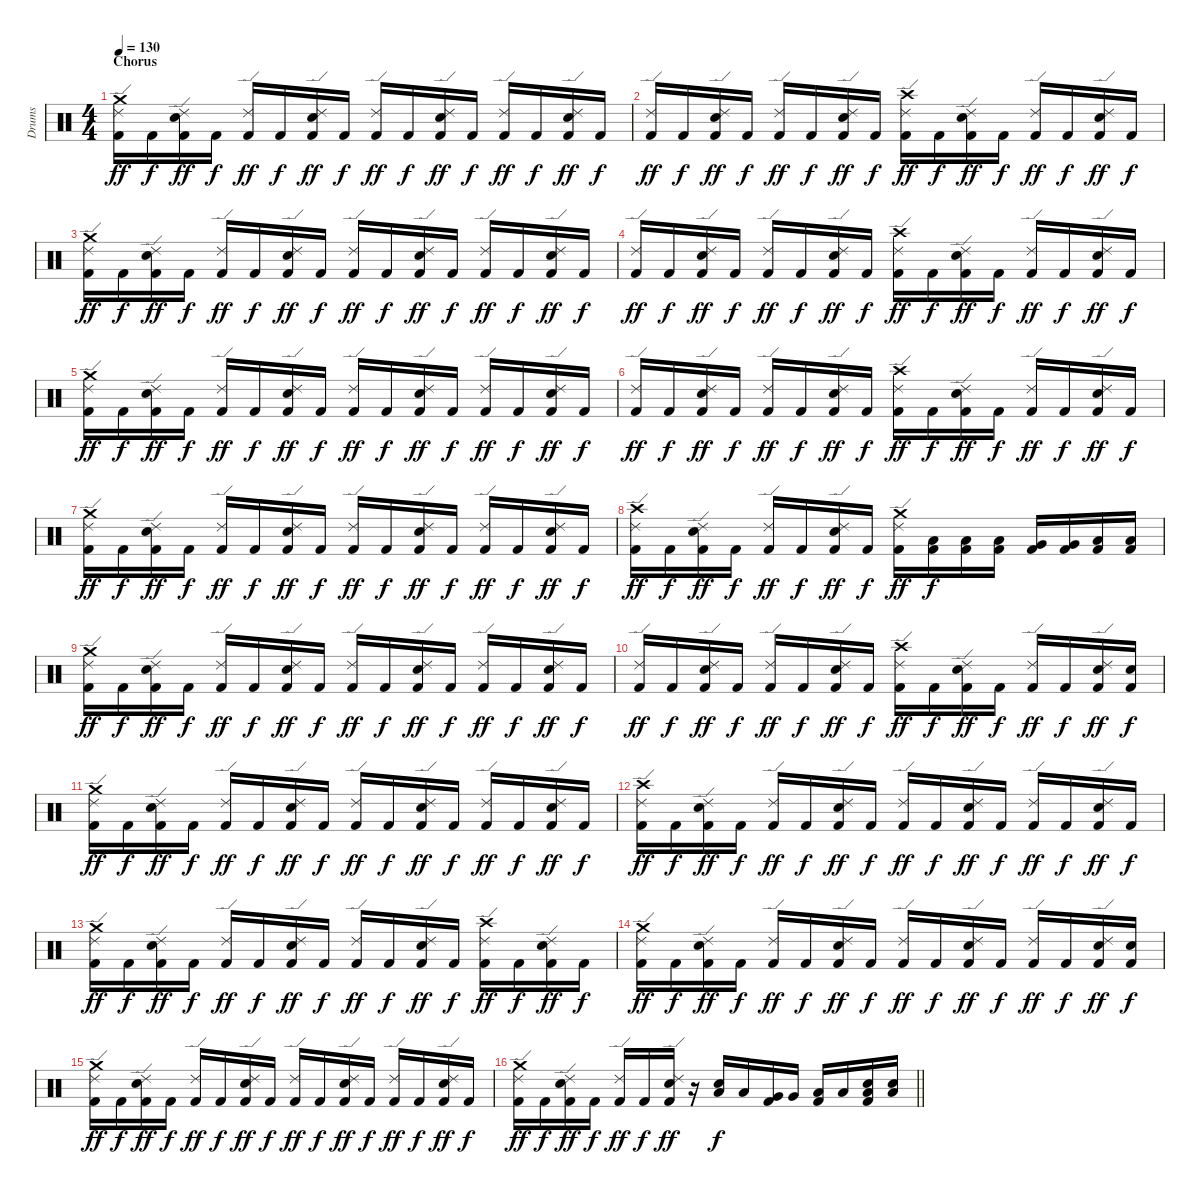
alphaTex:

\track ("Drums" "Drums") {instrument percussion}
\staff {score}
\articulation defaults
\ts (4 4)
\section ("" "Chorus")
\tempo 130
\clef neutral
\ks c
("Crash medium (hit)" "Ride (edge) 2" "Kick (hit) 2").16{dy ff} "Kick (hit) 2".16{dy f} ("Ride (edge) 2" "Snare (hit) 2" "Kick (hit) 2").16{dy ff} "Kick (hit) 2".16{dy f} ("Ride (edge) 2" "Kick (hit) 2").16{dy ff} "Kick (hit) 2".16{dy f} ("Ride (edge) 2" "Snare (hit) 2" "Kick (hit) 2").16{dy ff} "Kick (hit) 2".16{dy f} ("Ride (edge) 2" "Kick (hit) 2").16{dy ff} "Kick (hit) 2".16{dy f} ("Ride (edge) 2" "Snare (hit) 2" "Kick (hit) 2").16{dy ff} "Kick (hit) 2".16{dy f} ("Ride (edge) 2" "Kick (hit) 2").16{dy ff} "Kick (hit) 2".16{dy f} ("Ride (edge) 2" "Snare (hit) 2" "Kick (hit) 2").16{dy ff} "Kick (hit) 2".16{dy f} |
("Ride (edge) 2" "Kick (hit) 2").16{dy ff} "Kick (hit) 2".16{dy f} ("Ride (edge) 2" "Snare (hit) 2" "Kick (hit) 2").16{dy ff} "Kick (hit) 2".16{dy f} ("Ride (edge) 2" "Kick (hit) 2").16{dy ff} "Kick (hit) 2".16{dy f} ("Ride (edge) 2" "Snare (hit) 2" "Kick (hit) 2").16{dy ff} "Kick (hit) 2".16{dy f} ("Crash high (hit)" "Ride (edge) 2" "Kick (hit) 2").16{dy ff} "Kick (hit) 2".16{dy f} ("Ride (edge) 2" "Snare (hit) 2" "Kick (hit) 2").16{dy ff} "Kick (hit) 2".16{dy f} ("Ride (edge) 2" "Kick (hit) 2").16{dy ff} "Kick (hit) 2".16{dy f} ("Ride (edge) 2" "Snare (hit) 2" "Kick (hit) 2").16{dy ff} "Kick (hit) 2".16{dy f} |
("Crash medium (hit)" "Ride (edge) 2" "Kick (hit) 2").16{dy ff} "Kick (hit) 2".16{dy f} ("Ride (edge) 2" "Snare (hit) 2" "Kick (hit) 2").16{dy ff} "Kick (hit) 2".16{dy f} ("Ride (edge) 2" "Kick (hit) 2").16{dy ff} "Kick (hit) 2".16{dy f} ("Ride (edge) 2" "Snare (hit) 2" "Kick (hit) 2").16{dy ff} "Kick (hit) 2".16{dy f} ("Ride (edge) 2" "Kick (hit) 2").16{dy ff} "Kick (hit) 2".16{dy f} ("Ride (edge) 2" "Snare (hit) 2" "Kick (hit) 2").16{dy ff} "Kick (hit) 2".16{dy f} ("Ride (edge) 2" "Kick (hit) 2").16{dy ff} "Kick (hit) 2".16{dy f} ("Ride (edge) 2" "Snare (hit) 2" "Kick (hit) 2").16{dy ff} "Kick (hit) 2".16{dy f} |
("Ride (edge) 2" "Kick (hit) 2").16{dy ff} "Kick (hit) 2".16{dy f} ("Ride (edge) 2" "Snare (hit) 2" "Kick (hit) 2").16{dy ff} "Kick (hit) 2".16{dy f} ("Ride (edge) 2" "Kick (hit) 2").16{dy ff} "Kick (hit) 2".16{dy f} ("Ride (edge) 2" "Snare (hit) 2" "Kick (hit) 2").16{dy ff} "Kick (hit) 2".16{dy f} ("Crash high (hit)" "Ride (edge) 2" "Kick (hit) 2").16{dy ff} "Kick (hit) 2".16{dy f} ("Ride (edge) 2" "Snare (hit) 2" "Kick (hit) 2").16{dy ff} "Kick (hit) 2".16{dy f} ("Ride (edge) 2" "Kick (hit) 2").16{dy ff} "Kick (hit) 2".16{dy f} ("Ride (edge) 2" "Snare (hit) 2" "Kick (hit) 2").16{dy ff} "Kick (hit) 2".16{dy f} |
("Crash medium (hit)" "Ride (edge) 2" "Kick (hit) 2").16{dy ff} "Kick (hit) 2".16{dy f} ("Ride (edge) 2" "Snare (hit) 2" "Kick (hit) 2").16{dy ff} "Kick (hit) 2".16{dy f} ("Ride (edge) 2" "Kick (hit) 2").16{dy ff} "Kick (hit) 2".16{dy f} ("Ride (edge) 2" "Snare (hit) 2" "Kick (hit) 2").16{dy ff} "Kick (hit) 2".16{dy f} ("Ride (edge) 2" "Kick (hit) 2").16{dy ff} "Kick (hit) 2".16{dy f} ("Ride (edge) 2" "Snare (hit) 2" "Kick (hit) 2").16{dy ff} "Kick (hit) 2".16{dy f} ("Ride (edge) 2" "Kick (hit) 2").16{dy ff} "Kick (hit) 2".16{dy f} ("Ride (edge) 2" "Snare (hit) 2" "Kick (hit) 2").16{dy ff} "Kick (hit) 2".16{dy f} |
("Ride (edge) 2" "Kick (hit) 2").16{dy ff} "Kick (hit) 2".16{dy f} ("Ride (edge) 2" "Snare (hit) 2" "Kick (hit) 2").16{dy ff} "Kick (hit) 2".16{dy f} ("Ride (edge) 2" "Kick (hit) 2").16{dy ff} "Kick (hit) 2".16{dy f} ("Ride (edge) 2" "Snare (hit) 2" "Kick (hit) 2").16{dy ff} "Kick (hit) 2".16{dy f} ("Crash high (hit)" "Ride (edge) 2" "Kick (hit) 2").16{dy ff} "Kick (hit) 2".16{dy f} ("Ride (edge) 2" "Snare (hit) 2" "Kick (hit) 2").16{dy ff} "Kick (hit) 2".16{dy f} ("Ride (edge) 2" "Kick (hit) 2").16{dy ff} "Kick (hit) 2".16{dy f} ("Ride (edge) 2" "Snare (hit) 2" "Kick (hit) 2").16{dy ff} "Kick (hit) 2".16{dy f} |
("Crash medium (hit)" "Ride (edge) 2" "Kick (hit) 2").16{dy ff} "Kick (hit) 2".16{dy f} ("Ride (edge) 2" "Snare (hit) 2" "Kick (hit) 2").16{dy ff} "Kick (hit) 2".16{dy f} ("Ride (edge) 2" "Kick (hit) 2").16{dy ff} "Kick (hit) 2".16{dy f} ("Ride (edge) 2" "Snare (hit) 2" "Kick (hit) 2").16{dy ff} "Kick (hit) 2".16{dy f} ("Ride (edge) 2" "Kick (hit) 2").16{dy ff} "Kick (hit) 2".16{dy f} ("Ride (edge) 2" "Snare (hit) 2" "Kick (hit) 2").16{dy ff} "Kick (hit) 2".16{dy f} ("Ride (edge) 2" "Kick (hit) 2").16{dy ff} "Kick (hit) 2".16{dy f} ("Ride (edge) 2" "Snare (hit) 2" "Kick (hit) 2").16{dy ff} "Kick (hit) 2".16{dy f} |
("Crash high (hit)" "Ride (edge) 2" "Kick (hit) 2").16{dy ff} "Kick (hit) 2".16{dy f} ("Ride (edge) 2" "Snare (hit) 2" "Kick (hit) 2").16{dy ff} "Kick (hit) 2".16{dy f} ("Ride (edge) 2" "Kick (hit) 2").16{dy ff} "Kick (hit) 2".16{dy f} ("Ride (edge) 2" "Snare (hit) 2" "Kick (hit) 2").16{dy ff} "Kick (hit) 2".16{dy f} ("Crash medium (hit)" "Ride (edge) 2" "Kick (hit) 2").16{dy ff} ("Low Tom (hit)" "Kick (hit) 2").16{dy f} ("Low Tom (hit)" "Kick (hit) 2").16 ("Low Tom (hit)" "Kick (hit) 2").16 ("Very Low Tom (hit)" "Kick (hit) 2").16 ("Very Low Tom (hit)" "Kick (hit) 2").16 ("Low Floor Tom (hit)" "Kick (hit) 2").16 ("Low Floor Tom (hit)" "Kick (hit) 2").16 |
("Crash medium (hit)" "Ride (edge) 2" "Kick (hit) 2").16{dy ff} "Kick (hit) 2".16{dy f} ("Ride (edge) 2" "Snare (hit) 2" "Kick (hit) 2").16{dy ff} "Kick (hit) 2".16{dy f} ("Ride (edge) 2" "Kick (hit) 2").16{dy ff} "Kick (hit) 2".16{dy f} ("Ride (edge) 2" "Snare (hit) 2" "Kick (hit) 2").16{dy ff} "Kick (hit) 2".16{dy f} ("Ride (edge) 2" "Kick (hit) 2").16{dy ff} "Kick (hit) 2".16{dy f} ("Ride (edge) 2" "Snare (hit) 2" "Kick (hit) 2").16{dy ff} "Kick (hit) 2".16{dy f} ("Ride (edge) 2" "Kick (hit) 2").16{dy ff} "Kick (hit) 2".16{dy f} ("Ride (edge) 2" "Snare (hit) 2" "Kick (hit) 2").16{dy ff} "Kick (hit) 2".16{dy f} |
("Ride (edge) 2" "Kick (hit) 2").16{dy ff} "Kick (hit) 2".16{dy f} ("Ride (edge) 2" "Snare (hit) 2" "Kick (hit) 2").16{dy ff} "Kick (hit) 2".16{dy f} ("Ride (edge) 2" "Kick (hit) 2").16{dy ff} "Kick (hit) 2".16{dy f} ("Ride (edge) 2" "Snare (hit) 2" "Kick (hit) 2").16{dy ff} "Kick (hit) 2".16{dy f} ("Crash high (hit)" "Ride (edge) 2" "Kick (hit) 2").16{dy ff} "Kick (hit) 2".16{dy f} ("Ride (edge) 2" "Snare (hit) 2" "Kick (hit) 2").16{dy ff} "Kick (hit) 2".16{dy f} ("Ride (edge) 2" "Kick (hit) 2").16{dy ff} "Kick (hit) 2".16{dy f} ("Ride (edge) 2" "Snare (hit) 2" "Kick (hit) 2").16{dy ff} ("Snare (hit) 2" "Kick (hit) 2").16{dy f} |
("Crash medium (hit)" "Ride (edge) 2" "Kick (hit) 2").16{dy ff} "Kick (hit) 2".16{dy f} ("Ride (edge) 2" "Snare (hit) 2" "Kick (hit) 2").16{dy ff} "Kick (hit) 2".16{dy f} ("Ride (edge) 2" "Kick (hit) 2").16{dy ff} "Kick (hit) 2".16{dy f} ("Ride (edge) 2" "Snare (hit) 2" "Kick (hit) 2").16{dy ff} "Kick (hit) 2".16{dy f} ("Ride (edge) 2" "Kick (hit) 2").16{dy ff} "Kick (hit) 2".16{dy f} ("Ride (edge) 2" "Snare (hit) 2" "Kick (hit) 2").16{dy ff} "Kick (hit) 2".16{dy f} ("Ride (edge) 2" "Kick (hit) 2").16{dy ff} "Kick (hit) 2".16{dy f} ("Ride (edge) 2" "Snare (hit) 2" "Kick (hit) 2").16{dy ff} "Kick (hit) 2".16{dy f} |
("Crash high (hit)" "Ride (edge) 2" "Kick (hit) 2").16{dy ff} "Kick (hit) 2".16{dy f} ("Ride (edge) 2" "Snare (hit) 2" "Kick (hit) 2").16{dy ff} "Kick (hit) 2".16{dy f} ("Ride (edge) 2" "Kick (hit) 2").16{dy ff} "Kick (hit) 2".16{dy f} ("Ride (edge) 2" "Snare (hit) 2" "Kick (hit) 2").16{dy ff} "Kick (hit) 2".16{dy f} ("Ride (edge) 2" "Kick (hit) 2").16{dy ff} "Kick (hit) 2".16{dy f} ("Ride (edge) 2" "Snare (hit) 2" "Kick (hit) 2").16{dy ff} "Kick (hit) 2".16{dy f} ("Ride (edge) 2" "Kick (hit) 2").16{dy ff} "Kick (hit) 2".16{dy f} ("Ride (edge) 2" "Snare (hit) 2" "Kick (hit) 2").16{dy ff} "Kick (hit) 2".16{dy f} |
("Crash medium (hit)" "Ride (edge) 2" "Kick (hit) 2").16{dy ff} "Kick (hit) 2".16{dy f} ("Ride (edge) 2" "Snare (hit) 2" "Kick (hit) 2").16{dy ff} "Kick (hit) 2".16{dy f} ("Ride (edge) 2" "Kick (hit) 2").16{dy ff} "Kick (hit) 2".16{dy f} ("Ride (edge) 2" "Snare (hit) 2" "Kick (hit) 2").16{dy ff} "Kick (hit) 2".16{dy f} ("Ride (edge) 2" "Kick (hit) 2").16{dy ff} "Kick (hit) 2".16{dy f} ("Ride (edge) 2" "Snare (hit) 2" "Kick (hit) 2").16{dy ff} "Kick (hit) 2".16{dy f} ("Crash high (hit)" "Ride (edge) 2" "Kick (hit) 2").16{dy ff} "Kick (hit) 2".16{dy f} ("Ride (edge) 2" "Snare (hit) 2" "Kick (hit) 2").16{dy ff} "Kick (hit) 2".16{dy f} |
("Crash medium (hit)" "Ride (edge) 2" "Kick (hit) 2").16{dy ff} "Kick (hit) 2".16{dy f} ("Ride (edge) 2" "Snare (hit) 2" "Kick (hit) 2").16{dy ff} "Kick (hit) 2".16{dy f} ("Ride (edge) 2" "Kick (hit) 2").16{dy ff} "Kick (hit) 2".16{dy f} ("Ride (edge) 2" "Snare (hit) 2" "Kick (hit) 2").16{dy ff} "Kick (hit) 2".16{dy f} ("Ride (edge) 2" "Kick (hit) 2").16{dy ff} "Kick (hit) 2".16{dy f} ("Ride (edge) 2" "Snare (hit) 2" "Kick (hit) 2").16{dy ff} "Kick (hit) 2".16{dy f} ("Ride (edge) 2" "Kick (hit) 2").16{dy ff} "Kick (hit) 2".16{dy f} ("Ride (edge) 2" "Snare (hit) 2" "Kick (hit) 2").16{dy ff} ("Snare (hit) 2" "Kick (hit) 2").16{dy f} |
("Crash medium (hit)" "Ride (edge) 2" "Kick (hit) 2").16{dy ff} "Kick (hit) 2".16{dy f} ("Ride (edge) 2" "Snare (hit) 2" "Kick (hit) 2").16{dy ff} "Kick (hit) 2".16{dy f} ("Ride (edge) 2" "Kick (hit) 2").16{dy ff} "Kick (hit) 2".16{dy f} ("Ride (edge) 2" "Snare (hit) 2" "Kick (hit) 2").16{dy ff} "Kick (hit) 2".16{dy f} ("Ride (edge) 2" "Kick (hit) 2").16{dy ff} "Kick (hit) 2".16{dy f} ("Ride (edge) 2" "Snare (hit) 2" "Kick (hit) 2").16{dy ff} "Kick (hit) 2".16{dy f} ("Ride (edge) 2" "Kick (hit) 2").16{dy ff} "Kick (hit) 2".16{dy f} ("Ride (edge) 2" "Snare (hit) 2" "Kick (hit) 2").16{dy ff} "Kick (hit) 2".16{dy f} |
\barLineRight lightlight
("Crash medium (hit)" "Ride (edge) 2" "Kick (hit) 2").16{dy ff} "Kick (hit) 2".16{dy f} ("Ride (edge) 2" "Snare (hit) 2" "Kick (hit) 2").16{dy ff} "Kick (hit) 2".16{dy f} ("Ride (edge) 2" "Kick (hit) 2").16{dy ff} "Kick (hit) 2".16{dy f} ("Ride (edge) 2" "Snare (hit) 2" "Kick (hit) 2").16{dy ff} r.16 ("Snare (hit) 2" "Low Tom (hit)").16{dy f} "Low Tom (hit)".16 ("Very Low Tom (hit)" "Kick (hit) 2").16 "Very Low Tom (hit)".16 ("Low Floor Tom (hit)" "Kick (hit) 2").16 "Low Floor Tom (hit)".16 ("Snare (hit) 2" "Low Floor Tom (hit)" "Kick (hit) 2").16 ("Snare (hit) 2" "Low Floor Tom (hit)").16
